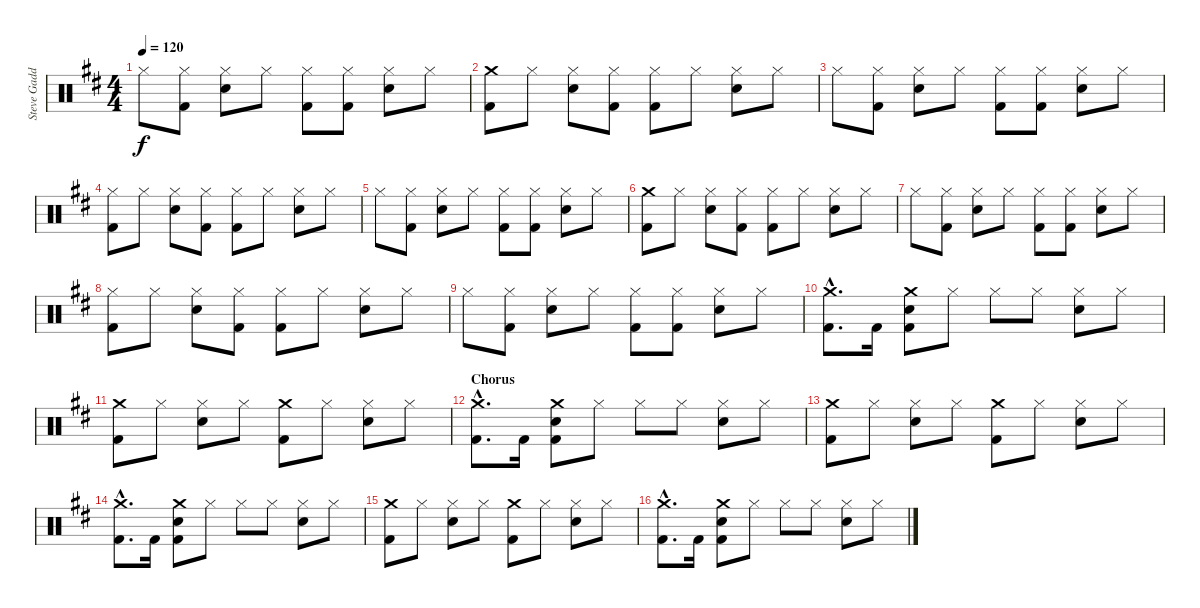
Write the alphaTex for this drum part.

\track ("Steve Gadd Drums" "Steve Gadd") {instrument percussion}
\staff {score}
\articulation defaults
\ts (4 4)
\tempo 120
\clef neutral
\ks d "Hi-Hat (closed)".8{dy f}
("Hi-Hat (closed)" "Kick (hit) 2").8 ("Hi-Hat (closed)" "Snare (hit) 2").8 "Hi-Hat (closed)".8 ("Hi-Hat (closed)" "Kick (hit) 2").8 ("Hi-Hat (closed)" "Kick (hit) 2").8 ("Hi-Hat (closed)" "Snare (hit) 2").8 "Hi-Hat (closed)".8 |
("Crash medium (hit)" "Kick (hit) 2").8 "Hi-Hat (closed)".8 ("Hi-Hat (closed)" "Snare (hit) 2").8 ("Hi-Hat (closed)" "Kick (hit) 2").8 ("Hi-Hat (closed)" "Kick (hit) 2").8 "Hi-Hat (closed)".8 ("Hi-Hat (closed)" "Snare (hit) 2").8 "Hi-Hat (closed)".8 |
"Hi-Hat (closed)".8 ("Hi-Hat (closed)" "Kick (hit) 2").8 ("Hi-Hat (closed)" "Snare (hit) 2").8 "Hi-Hat (closed)".8 ("Hi-Hat (closed)" "Kick (hit) 2").8 ("Hi-Hat (closed)" "Kick (hit) 2").8 ("Hi-Hat (closed)" "Snare (hit) 2").8 "Hi-Hat (closed)".8 |
("Hi-Hat (closed)" "Kick (hit) 2").8 "Hi-Hat (closed)".8 ("Hi-Hat (closed)" "Snare (hit) 2").8 ("Hi-Hat (closed)" "Kick (hit) 2").8 ("Hi-Hat (closed)" "Kick (hit) 2").8 "Hi-Hat (closed)".8 ("Hi-Hat (closed)" "Snare (hit) 2").8 "Hi-Hat (closed)".8 |
"Hi-Hat (closed)".8 ("Hi-Hat (closed)" "Kick (hit) 2").8 ("Hi-Hat (closed)" "Snare (hit) 2").8 "Hi-Hat (closed)".8 ("Hi-Hat (closed)" "Kick (hit) 2").8 ("Hi-Hat (closed)" "Kick (hit) 2").8 ("Hi-Hat (closed)" "Snare (hit) 2").8 "Hi-Hat (closed)".8 |
("Crash medium (hit)" "Kick (hit) 2").8 "Hi-Hat (closed)".8 ("Hi-Hat (closed)" "Snare (hit) 2").8 ("Hi-Hat (closed)" "Kick (hit) 2").8 ("Hi-Hat (closed)" "Kick (hit) 2").8 "Hi-Hat (closed)".8 ("Hi-Hat (closed)" "Snare (hit) 2").8 "Hi-Hat (closed)".8 |
"Hi-Hat (closed)".8 ("Hi-Hat (closed)" "Kick (hit) 2").8 ("Hi-Hat (closed)" "Snare (hit) 2").8 "Hi-Hat (closed)".8 ("Hi-Hat (closed)" "Kick (hit) 2").8 ("Hi-Hat (closed)" "Kick (hit) 2").8 ("Hi-Hat (closed)" "Snare (hit) 2").8 "Hi-Hat (closed)".8 |
("Hi-Hat (closed)" "Kick (hit) 2").8 "Hi-Hat (closed)".8 ("Hi-Hat (closed)" "Snare (hit) 2").8 ("Hi-Hat (closed)" "Kick (hit) 2").8 ("Hi-Hat (closed)" "Kick (hit) 2").8 "Hi-Hat (closed)".8 ("Hi-Hat (closed)" "Snare (hit) 2").8 "Hi-Hat (closed)".8 |
"Hi-Hat (closed)".8 ("Hi-Hat (closed)" "Kick (hit) 2").8 ("Hi-Hat (closed)" "Snare (hit) 2").8 "Hi-Hat (closed)".8 ("Hi-Hat (closed)" "Kick (hit) 2").8 ("Hi-Hat (closed)" "Kick (hit) 2").8 ("Hi-Hat (closed)" "Snare (hit) 2").8 "Hi-Hat (closed)".8 |
("Crash medium (hit)"{hac} "Kick (hit) 2"{hac}).8{d} "Kick (hit) 2".16 ("Crash medium (hit)" "Snare (hit) 2" "Kick (hit) 2").8 "Hi-Hat (closed)".8 "Hi-Hat (closed)".8 "Hi-Hat (closed)".8 ("Hi-Hat (closed)" "Snare (hit) 2").8 "Hi-Hat (closed)".8 |
("Crash medium (hit)" "Kick (hit) 2").8 "Hi-Hat (closed)".8 ("Hi-Hat (closed)" "Snare (hit) 2").8 "Hi-Hat (closed)".8 ("Crash medium (hit)" "Kick (hit) 2").8 "Hi-Hat (closed)".8 ("Hi-Hat (closed)" "Snare (hit) 2").8 "Hi-Hat (closed)".8 |
\section ("" "Chorus")
("Crash medium (hit)"{hac} "Kick (hit) 2"{hac}).8{d} "Kick (hit) 2".16 ("Crash medium (hit)" "Snare (hit) 2" "Kick (hit) 2").8 "Hi-Hat (closed)".8 "Hi-Hat (closed)".8 "Hi-Hat (closed)".8 ("Hi-Hat (closed)" "Snare (hit) 2").8 "Hi-Hat (closed)".8 |
("Crash medium (hit)" "Kick (hit) 2").8 "Hi-Hat (closed)".8 ("Hi-Hat (closed)" "Snare (hit) 2").8 "Hi-Hat (closed)".8 ("Crash medium (hit)" "Kick (hit) 2").8 "Hi-Hat (closed)".8 ("Hi-Hat (closed)" "Snare (hit) 2").8 "Hi-Hat (closed)".8 |
("Crash medium (hit)"{hac} "Kick (hit) 2"{hac}).8{d} "Kick (hit) 2".16 ("Crash medium (hit)" "Snare (hit) 2" "Kick (hit) 2").8 "Hi-Hat (closed)".8 "Hi-Hat (closed)".8 "Hi-Hat (closed)".8 ("Hi-Hat (closed)" "Snare (hit) 2").8 "Hi-Hat (closed)".8 |
("Crash medium (hit)" "Kick (hit) 2").8 "Hi-Hat (closed)".8 ("Hi-Hat (closed)" "Snare (hit) 2").8 "Hi-Hat (closed)".8 ("Crash medium (hit)" "Kick (hit) 2").8 "Hi-Hat (closed)".8 ("Hi-Hat (closed)" "Snare (hit) 2").8 "Hi-Hat (closed)".8 |
("Crash medium (hit)"{hac} "Kick (hit) 2"{hac}).8{d} "Kick (hit) 2".16 ("Crash medium (hit)" "Snare (hit) 2" "Kick (hit) 2").8 "Hi-Hat (closed)".8 "Hi-Hat (closed)".8 "Hi-Hat (closed)".8 ("Hi-Hat (closed)" "Snare (hit) 2").8 "Hi-Hat (closed)".8
